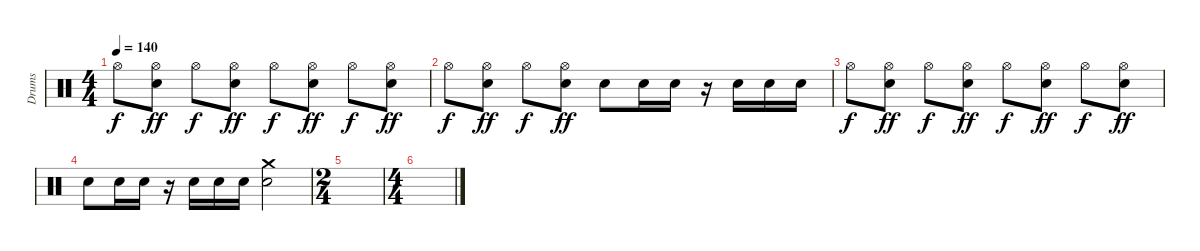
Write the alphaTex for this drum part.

\track ("Drums" "Drums") {instrument percussion}
\staff {score}
\articulation defaults
\ts (4 4)
\tempo 140
\clef neutral
\ks c "Hi-Hat (open)".8{dy f}
("Hi-Hat (open)" "Electric Snare (hit)").8{dy ff} "Hi-Hat (open)".8{dy f} ("Hi-Hat (open)" "Electric Snare (hit)").8{dy ff} "Hi-Hat (open)".8{dy f} ("Hi-Hat (open)" "Electric Snare (hit)").8{dy ff} "Hi-Hat (open)".8{dy f} ("Hi-Hat (open)" "Electric Snare (hit)").8{dy ff} |
"Hi-Hat (open)".8{dy f} ("Hi-Hat (open)" "Electric Snare (hit)").8{dy ff} "Hi-Hat (open)".8{dy f} ("Hi-Hat (open)" "Electric Snare (hit)").8{dy ff} "Electric Snare (hit)".8 "Electric Snare (hit)".16 "Electric Snare (hit)".16 r.16 "Electric Snare (hit)".16 "Electric Snare (hit)".16 "Electric Snare (hit)".16 |
"Hi-Hat (open)".8{dy f} ("Hi-Hat (open)" "Electric Snare (hit)").8{dy ff} "Hi-Hat (open)".8{dy f} ("Hi-Hat (open)" "Electric Snare (hit)").8{dy ff} "Hi-Hat (open)".8{dy f} ("Hi-Hat (open)" "Electric Snare (hit)").8{dy ff} "Hi-Hat (open)".8{dy f} ("Hi-Hat (open)" "Electric Snare (hit)").8{dy ff} |
"Electric Snare (hit)".8 "Electric Snare (hit)".16 "Electric Snare (hit)".16 r.16 "Electric Snare (hit)".16 "Electric Snare (hit)".16 "Electric Snare (hit)".16 ("Crash medium (hit)" "Electric Snare (hit)").2 |
\ts (2 4)
|
\ts (4 4)
